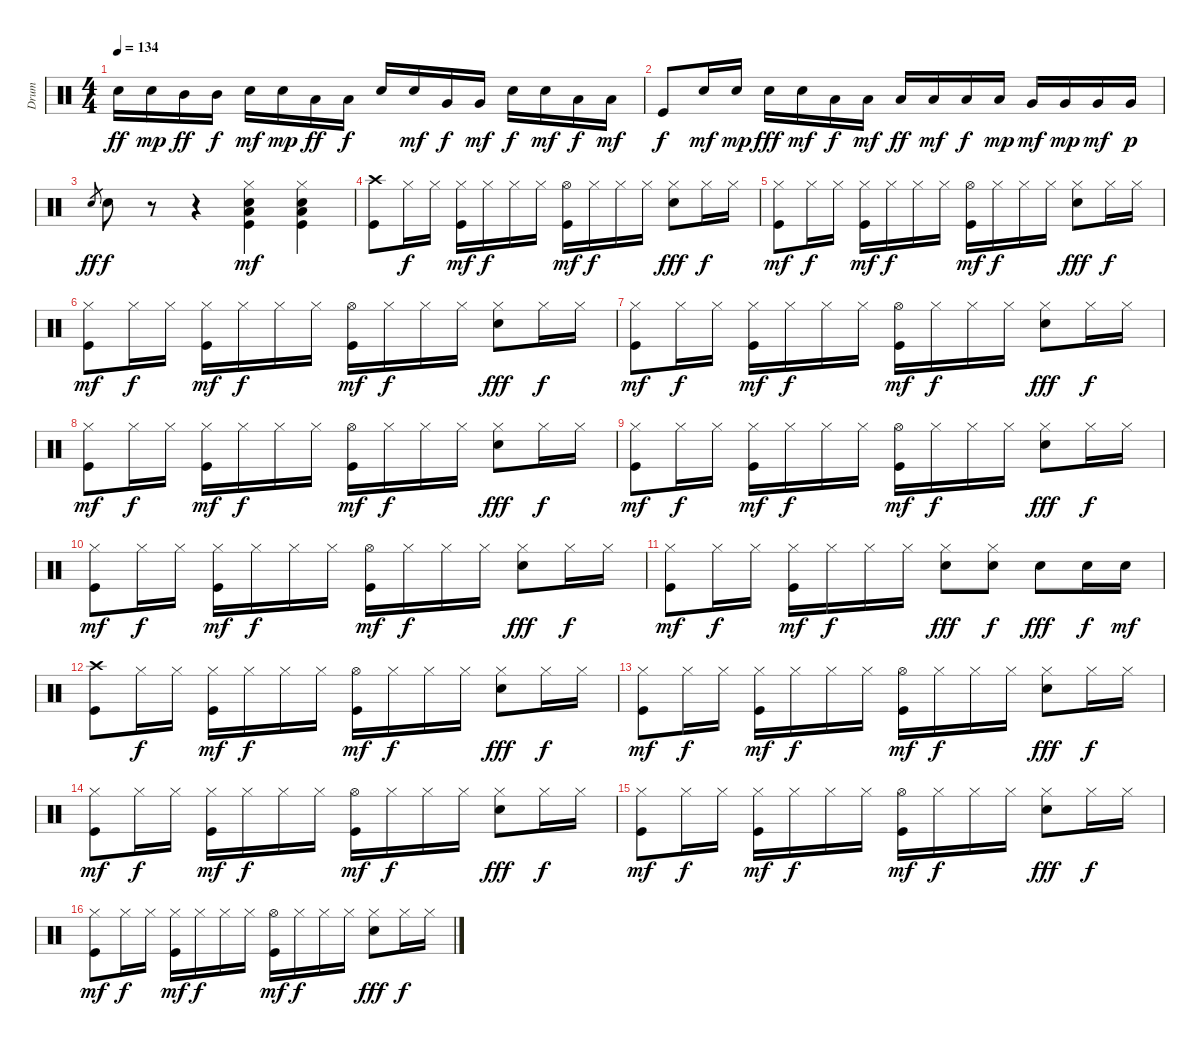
\track ("Drum" "Drum") {instrument percussion}
\staff {score}
\articulation defaults
\ts (4 4)
\tempo 134
\clef neutral
\ks c "Electric Snare (hit)".16{dy ff} "Electric Snare (hit)".16{dy mp} "Mid Tom (hit)".16{dy ff} "Mid Tom (hit)".16{dy f} "Electric Snare (hit)".16{dy mf} "Electric Snare (hit)".16{dy mp} "Low Tom (hit)".16{dy ff} "Low Tom (hit)".16{dy f} "Electric Snare (hit)".16 "Electric Snare (hit)".16{dy mf} "Very Low Tom (hit)".16{dy f} "Very Low Tom (hit)".16{dy mf} "Electric Snare (hit)".16{dy f} "Electric Snare (hit)".16{dy mf} "Low Floor Tom (hit)".16{dy f} "Low Floor Tom (hit)".16{dy mf}
|
"Kick (hit)".8{dy f} "Electric Snare (hit)".16{dy mf} "Electric Snare (hit)".16{dy mp} "Electric Snare (hit)".16{dy fff} "Electric Snare (hit)".16{dy mf} "Low Tom (hit)".16{dy f} "Low Tom (hit)".16{dy mf} "Low Tom (hit)".16{dy ff} "Low Tom (hit)".16{dy mf} "Low Tom (hit)".16{dy f} "Low Tom (hit)".16{dy mp} "Very Low Tom (hit)".16{dy mf} "Very Low Tom (hit)".16{dy mp} "Very Low Tom (hit)".16{dy mf} "Very Low Tom (hit)".16{dy p} |
"Electric Snare (hit)".8{gr dy ff} "Electric Snare (hit)".8{dy f} r.8 r.4 ("Hi-Hat (closed)" "Electric Snare (hit)" "Low Floor Tom (hit)" "Kick (hit)").4{dy mf} ("Hi-Hat (closed)" "Electric Snare (hit)" "Low Floor Tom (hit)" "Kick (hit)").4 |
("Crash high (hit)" "Kick (hit)").8 "Hi-Hat (closed)".16{dy f} "Hi-Hat (closed)".16 ("Hi-Hat (closed)" "Kick (hit)").16{dy mf} "Hi-Hat (closed)".16{dy f} "Hi-Hat (closed)".16 "Hi-Hat (closed)".16 ("Hi-Hat (open)" "Kick (hit)").16{dy mf} "Hi-Hat (closed)".16{dy f} "Hi-Hat (closed)".16 "Hi-Hat (closed)".16 ("Hi-Hat (closed)" "Electric Snare (hit)").8{dy fff} "Hi-Hat (closed)".16{dy f} "Hi-Hat (closed)".16 |
("Hi-Hat (closed)" "Kick (hit)").8{dy mf} "Hi-Hat (closed)".16{dy f} "Hi-Hat (closed)".16 ("Hi-Hat (closed)" "Kick (hit)").16{dy mf} "Hi-Hat (closed)".16{dy f} "Hi-Hat (closed)".16 "Hi-Hat (closed)".16 ("Hi-Hat (open)" "Kick (hit)").16{dy mf} "Hi-Hat (closed)".16{dy f} "Hi-Hat (closed)".16 "Hi-Hat (closed)".16 ("Hi-Hat (closed)" "Electric Snare (hit)").8{dy fff} "Hi-Hat (closed)".16{dy f} "Hi-Hat (closed)".16 |
("Hi-Hat (closed)" "Kick (hit)").8{dy mf} "Hi-Hat (closed)".16{dy f} "Hi-Hat (closed)".16 ("Hi-Hat (closed)" "Kick (hit)").16{dy mf} "Hi-Hat (closed)".16{dy f} "Hi-Hat (closed)".16 "Hi-Hat (closed)".16 ("Hi-Hat (open)" "Kick (hit)").16{dy mf} "Hi-Hat (closed)".16{dy f} "Hi-Hat (closed)".16 "Hi-Hat (closed)".16 ("Hi-Hat (closed)" "Electric Snare (hit)").8{dy fff} "Hi-Hat (closed)".16{dy f} "Hi-Hat (closed)".16 |
("Hi-Hat (closed)" "Kick (hit)").8{dy mf} "Hi-Hat (closed)".16{dy f} "Hi-Hat (closed)".16 ("Hi-Hat (closed)" "Kick (hit)").16{dy mf} "Hi-Hat (closed)".16{dy f} "Hi-Hat (closed)".16 "Hi-Hat (closed)".16 ("Hi-Hat (open)" "Kick (hit)").16{dy mf} "Hi-Hat (closed)".16{dy f} "Hi-Hat (closed)".16 "Hi-Hat (closed)".16 ("Hi-Hat (closed)" "Electric Snare (hit)").8{dy fff} "Hi-Hat (closed)".16{dy f} "Hi-Hat (closed)".16 |
("Hi-Hat (closed)" "Kick (hit)").8{dy mf} "Hi-Hat (closed)".16{dy f} "Hi-Hat (closed)".16 ("Hi-Hat (closed)" "Kick (hit)").16{dy mf} "Hi-Hat (closed)".16{dy f} "Hi-Hat (closed)".16 "Hi-Hat (closed)".16 ("Hi-Hat (open)" "Kick (hit)").16{dy mf} "Hi-Hat (closed)".16{dy f} "Hi-Hat (closed)".16 "Hi-Hat (closed)".16 ("Hi-Hat (closed)" "Electric Snare (hit)").8{dy fff} "Hi-Hat (closed)".16{dy f} "Hi-Hat (closed)".16 |
("Hi-Hat (closed)" "Kick (hit)").8{dy mf} "Hi-Hat (closed)".16{dy f} "Hi-Hat (closed)".16 ("Hi-Hat (closed)" "Kick (hit)").16{dy mf} "Hi-Hat (closed)".16{dy f} "Hi-Hat (closed)".16 "Hi-Hat (closed)".16 ("Hi-Hat (open)" "Kick (hit)").16{dy mf} "Hi-Hat (closed)".16{dy f} "Hi-Hat (closed)".16 "Hi-Hat (closed)".16 ("Hi-Hat (closed)" "Electric Snare (hit)").8{dy fff} "Hi-Hat (closed)".16{dy f} "Hi-Hat (closed)".16 |
("Hi-Hat (closed)" "Kick (hit)").8{dy mf} "Hi-Hat (closed)".16{dy f} "Hi-Hat (closed)".16 ("Hi-Hat (closed)" "Kick (hit)").16{dy mf} "Hi-Hat (closed)".16{dy f} "Hi-Hat (closed)".16 "Hi-Hat (closed)".16 ("Hi-Hat (open)" "Kick (hit)").16{dy mf} "Hi-Hat (closed)".16{dy f} "Hi-Hat (closed)".16 "Hi-Hat (closed)".16 ("Hi-Hat (closed)" "Electric Snare (hit)").8{dy fff} "Hi-Hat (closed)".16{dy f} "Hi-Hat (closed)".16 |
("Hi-Hat (closed)" "Kick (hit)").8{dy mf} "Hi-Hat (closed)".16{dy f} "Hi-Hat (closed)".16 ("Hi-Hat (closed)" "Kick (hit)").16{dy mf} "Hi-Hat (closed)".16{dy f} "Hi-Hat (closed)".16 "Hi-Hat (closed)".16 ("Hi-Hat (closed)" "Electric Snare (hit)").8{dy fff} ("Hi-Hat (closed)" "Electric Snare (hit)").8{dy f} "Electric Snare (hit)".8{dy fff} "Electric Snare (hit)".16{dy f} "Electric Snare (hit)".16{dy mf} |
("Crash high (hit)" "Kick (hit)").8 "Hi-Hat (closed)".16{dy f} "Hi-Hat (closed)".16 ("Hi-Hat (closed)" "Kick (hit)").16{dy mf} "Hi-Hat (closed)".16{dy f} "Hi-Hat (closed)".16 "Hi-Hat (closed)".16 ("Hi-Hat (open)" "Kick (hit)").16{dy mf} "Hi-Hat (closed)".16{dy f} "Hi-Hat (closed)".16 "Hi-Hat (closed)".16 ("Hi-Hat (closed)" "Electric Snare (hit)").8{dy fff} "Hi-Hat (closed)".16{dy f} "Hi-Hat (closed)".16 |
("Hi-Hat (closed)" "Kick (hit)").8{dy mf} "Hi-Hat (closed)".16{dy f} "Hi-Hat (closed)".16 ("Hi-Hat (closed)" "Kick (hit)").16{dy mf} "Hi-Hat (closed)".16{dy f} "Hi-Hat (closed)".16 "Hi-Hat (closed)".16 ("Hi-Hat (open)" "Kick (hit)").16{dy mf} "Hi-Hat (closed)".16{dy f} "Hi-Hat (closed)".16 "Hi-Hat (closed)".16 ("Hi-Hat (closed)" "Electric Snare (hit)").8{dy fff} "Hi-Hat (closed)".16{dy f} "Hi-Hat (closed)".16 |
("Hi-Hat (closed)" "Kick (hit)").8{dy mf} "Hi-Hat (closed)".16{dy f} "Hi-Hat (closed)".16 ("Hi-Hat (closed)" "Kick (hit)").16{dy mf} "Hi-Hat (closed)".16{dy f} "Hi-Hat (closed)".16 "Hi-Hat (closed)".16 ("Hi-Hat (open)" "Kick (hit)").16{dy mf} "Hi-Hat (closed)".16{dy f} "Hi-Hat (closed)".16 "Hi-Hat (closed)".16 ("Hi-Hat (closed)" "Electric Snare (hit)").8{dy fff} "Hi-Hat (closed)".16{dy f} "Hi-Hat (closed)".16 |
("Hi-Hat (closed)" "Kick (hit)").8{dy mf} "Hi-Hat (closed)".16{dy f} "Hi-Hat (closed)".16 ("Hi-Hat (closed)" "Kick (hit)").16{dy mf} "Hi-Hat (closed)".16{dy f} "Hi-Hat (closed)".16 "Hi-Hat (closed)".16 ("Hi-Hat (open)" "Kick (hit)").16{dy mf} "Hi-Hat (closed)".16{dy f} "Hi-Hat (closed)".16 "Hi-Hat (closed)".16 ("Hi-Hat (closed)" "Electric Snare (hit)").8{dy fff} "Hi-Hat (closed)".16{dy f} "Hi-Hat (closed)".16 |
("Hi-Hat (closed)" "Kick (hit)").8{dy mf} "Hi-Hat (closed)".16{dy f} "Hi-Hat (closed)".16 ("Hi-Hat (closed)" "Kick (hit)").16{dy mf} "Hi-Hat (closed)".16{dy f} "Hi-Hat (closed)".16 "Hi-Hat (closed)".16 ("Hi-Hat (open)" "Kick (hit)").16{dy mf} "Hi-Hat (closed)".16{dy f} "Hi-Hat (closed)".16 "Hi-Hat (closed)".16 ("Hi-Hat (closed)" "Electric Snare (hit)").8{dy fff} "Hi-Hat (closed)".16{dy f} "Hi-Hat (closed)".16
